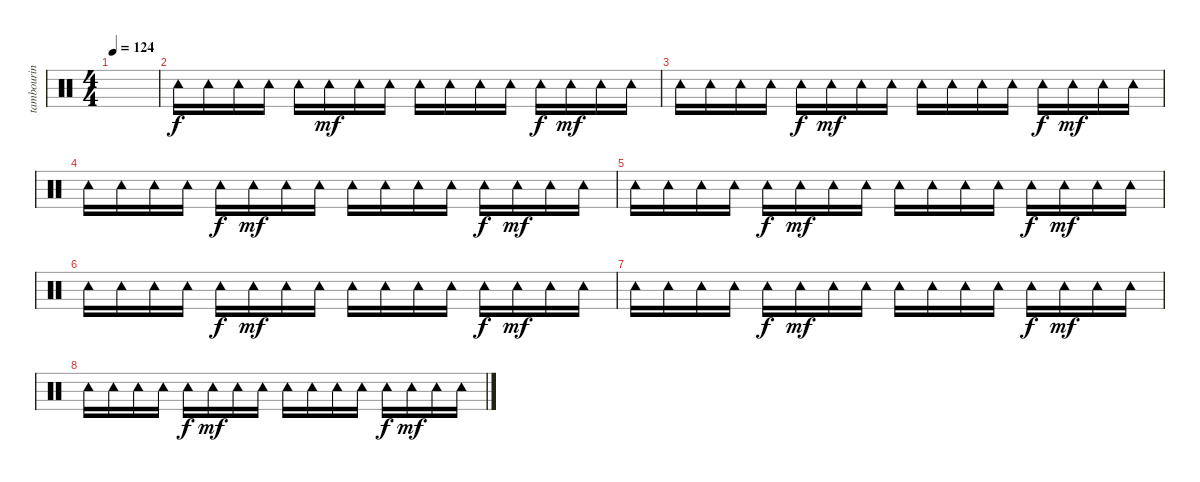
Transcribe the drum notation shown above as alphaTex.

\track ("tambourin" "tambourin") {instrument percussion}
\staff {score}
\articulation defaults
\ts (4 4)
\tempo 124
\clef neutral
\ks c
|
"Tambourine (hit)".16 "Tambourine (hit)".16 "Tambourine (hit)".16 "Tambourine (hit)".16 "Tambourine (hit)".16{dy f} "Tambourine (hit)".16{dy mf} "Tambourine (hit)".16 "Tambourine (hit)".16 "Tambourine (hit)".16 "Tambourine (hit)".16 "Tambourine (hit)".16 "Tambourine (hit)".16 "Tambourine (hit)".16{dy f} "Tambourine (hit)".16{dy mf} "Tambourine (hit)".16 "Tambourine (hit)".16 |
"Tambourine (hit)".16 "Tambourine (hit)".16 "Tambourine (hit)".16 "Tambourine (hit)".16 "Tambourine (hit)".16{dy f} "Tambourine (hit)".16{dy mf} "Tambourine (hit)".16 "Tambourine (hit)".16 "Tambourine (hit)".16 "Tambourine (hit)".16 "Tambourine (hit)".16 "Tambourine (hit)".16 "Tambourine (hit)".16{dy f} "Tambourine (hit)".16{dy mf} "Tambourine (hit)".16 "Tambourine (hit)".16 |
"Tambourine (hit)".16 "Tambourine (hit)".16 "Tambourine (hit)".16 "Tambourine (hit)".16 "Tambourine (hit)".16{dy f} "Tambourine (hit)".16{dy mf} "Tambourine (hit)".16 "Tambourine (hit)".16 "Tambourine (hit)".16 "Tambourine (hit)".16 "Tambourine (hit)".16 "Tambourine (hit)".16 "Tambourine (hit)".16{dy f} "Tambourine (hit)".16{dy mf} "Tambourine (hit)".16 "Tambourine (hit)".16 |
"Tambourine (hit)".16 "Tambourine (hit)".16 "Tambourine (hit)".16 "Tambourine (hit)".16 "Tambourine (hit)".16{dy f} "Tambourine (hit)".16{dy mf} "Tambourine (hit)".16 "Tambourine (hit)".16 "Tambourine (hit)".16 "Tambourine (hit)".16 "Tambourine (hit)".16 "Tambourine (hit)".16 "Tambourine (hit)".16{dy f} "Tambourine (hit)".16{dy mf} "Tambourine (hit)".16 "Tambourine (hit)".16 |
"Tambourine (hit)".16 "Tambourine (hit)".16 "Tambourine (hit)".16 "Tambourine (hit)".16 "Tambourine (hit)".16{dy f} "Tambourine (hit)".16{dy mf} "Tambourine (hit)".16 "Tambourine (hit)".16 "Tambourine (hit)".16 "Tambourine (hit)".16 "Tambourine (hit)".16 "Tambourine (hit)".16 "Tambourine (hit)".16{dy f} "Tambourine (hit)".16{dy mf} "Tambourine (hit)".16 "Tambourine (hit)".16 |
"Tambourine (hit)".16 "Tambourine (hit)".16 "Tambourine (hit)".16 "Tambourine (hit)".16 "Tambourine (hit)".16{dy f} "Tambourine (hit)".16{dy mf} "Tambourine (hit)".16 "Tambourine (hit)".16 "Tambourine (hit)".16 "Tambourine (hit)".16 "Tambourine (hit)".16 "Tambourine (hit)".16 "Tambourine (hit)".16{dy f} "Tambourine (hit)".16{dy mf} "Tambourine (hit)".16 "Tambourine (hit)".16 |
"Tambourine (hit)".16 "Tambourine (hit)".16 "Tambourine (hit)".16 "Tambourine (hit)".16 "Tambourine (hit)".16{dy f} "Tambourine (hit)".16{dy mf} "Tambourine (hit)".16 "Tambourine (hit)".16 "Tambourine (hit)".16 "Tambourine (hit)".16 "Tambourine (hit)".16 "Tambourine (hit)".16 "Tambourine (hit)".16{dy f} "Tambourine (hit)".16{dy mf} "Tambourine (hit)".16 "Tambourine (hit)".16
